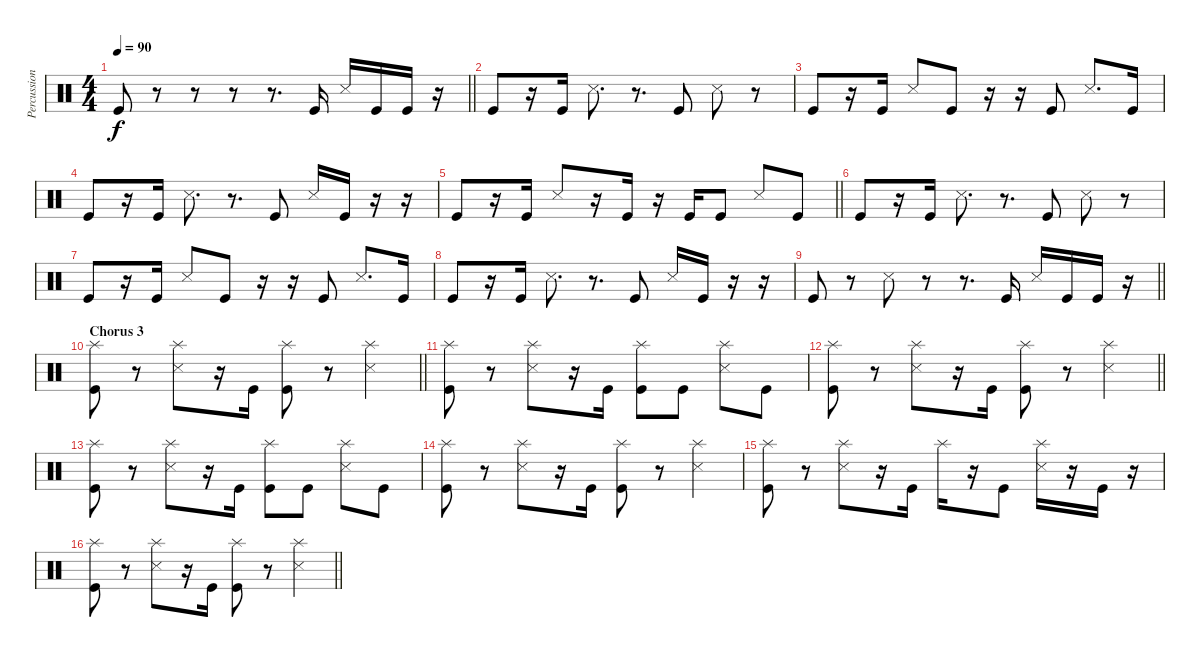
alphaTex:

\track ("Percussion" "Percussion") {instrument percussion}
\staff {score}
\articulation defaults
\ts (4 4)
\tempo 90
\clef neutral
\barLineRight lightlight
\ks c "Kick (hit)".8{dy f}
r.8 r.8 r.8 r.8{d} "Kick (hit)".16 "Snare (side stick) 3".16 "Kick (hit)".16 "Kick (hit)".16 r.16 |
"Kick (hit)".8 r.16 "Kick (hit)".16 "Snare (side stick) 3".8{d} r.8{d} "Kick (hit)".8 "Snare (side stick) 3".8 r.8 |
"Kick (hit)".8 r.16 "Kick (hit)".16 "Snare (side stick) 3".8 "Kick (hit)".8 r.16 r.16 "Kick (hit)".8 "Snare (side stick) 3".8{d} "Kick (hit)".16 |
"Kick (hit)".8 r.16 "Kick (hit)".16 "Snare (side stick) 3".8{d} r.8{d} "Kick (hit)".8 "Snare (side stick) 3".16 "Kick (hit)".16 r.16 r.16 |
\barLineRight lightlight "Kick (hit)".8
r.16 "Kick (hit)".16 "Snare (side stick) 3".8 r.16 "Kick (hit)".16 r.16 "Kick (hit)".16 "Kick (hit)".8 "Snare (side stick) 3".8 "Kick (hit)".8 |
"Kick (hit)".8 r.16 "Kick (hit)".16 "Snare (side stick) 3".8{d} r.8{d} "Kick (hit)".8 "Snare (side stick) 3".8 r.8 |
"Kick (hit)".8 r.16 "Kick (hit)".16 "Snare (side stick) 3".8 "Kick (hit)".8 r.16 r.16 "Kick (hit)".8 "Snare (side stick) 3".8{d} "Kick (hit)".16 |
"Kick (hit)".8 r.16 "Kick (hit)".16 "Snare (side stick) 3".8{d} r.8{d} "Kick (hit)".8 "Snare (side stick) 3".16 "Kick (hit)".16 r.16 r.16 |
\barLineRight lightlight "Kick (hit)".8
r.8 "Snare (side stick) 3".8 r.8 r.8{d} "Kick (hit)".16 "Snare (side stick) 3".16 "Kick (hit)".16 "Kick (hit)".16 r.16 |
\section ("" "Chorus 3")
\barLineRight lightlight
("Splash (hit)" "Kick (hit)").8{volume 12} r.8 ("Splash (hit)" "Snare (side stick) 3").8 r.16 "Kick (hit)".16 ("Splash (hit)" "Kick (hit)").8 r.8 ("Splash (hit)" "Snare (side stick) 3").4 |
("Splash (hit)" "Kick (hit)").8 r.8 ("Splash (hit)" "Snare (side stick) 3").8 r.16 "Kick (hit)".16 ("Splash (hit)" "Kick (hit)").8 "Kick (hit)".8 ("Splash (hit)" "Snare (side stick) 3").8 "Kick (hit)".8 |
\barLineRight lightlight
("Splash (hit)" "Kick (hit)").8 r.8 ("Splash (hit)" "Snare (side stick) 3").8 r.16 "Kick (hit)".16 ("Splash (hit)" "Kick (hit)").8 r.8 ("Splash (hit)" "Snare (side stick) 3").4 |
("Splash (hit)" "Kick (hit)").8 r.8 ("Splash (hit)" "Snare (side stick) 3").8 r.16 "Kick (hit)".16 ("Splash (hit)" "Kick (hit)").8 "Kick (hit)".8 ("Splash (hit)" "Snare (side stick) 3").8 "Kick (hit)".8 |
("Splash (hit)" "Kick (hit)").8 r.8 ("Splash (hit)" "Snare (side stick) 3").8 r.16 "Kick (hit)".16 ("Splash (hit)" "Kick (hit)").8 r.8 ("Splash (hit)" "Snare (side stick) 3").4 |
("Splash (hit)" "Kick (hit)").8 r.8 ("Splash (hit)" "Snare (side stick) 3").8 r.16 "Kick (hit)".16 "Splash (hit)".16 r.16 "Kick (hit)".8 ("Splash (hit)" "Snare (side stick) 3").16 r.16 "Kick (hit)".16 r.16 |
\barLineRight lightlight
("Splash (hit)" "Kick (hit)").8 r.8 ("Splash (hit)" "Snare (side stick) 3").8 r.16 "Kick (hit)".16 ("Splash (hit)" "Kick (hit)").8 r.8 ("Splash (hit)" "Snare (side stick) 3").4
